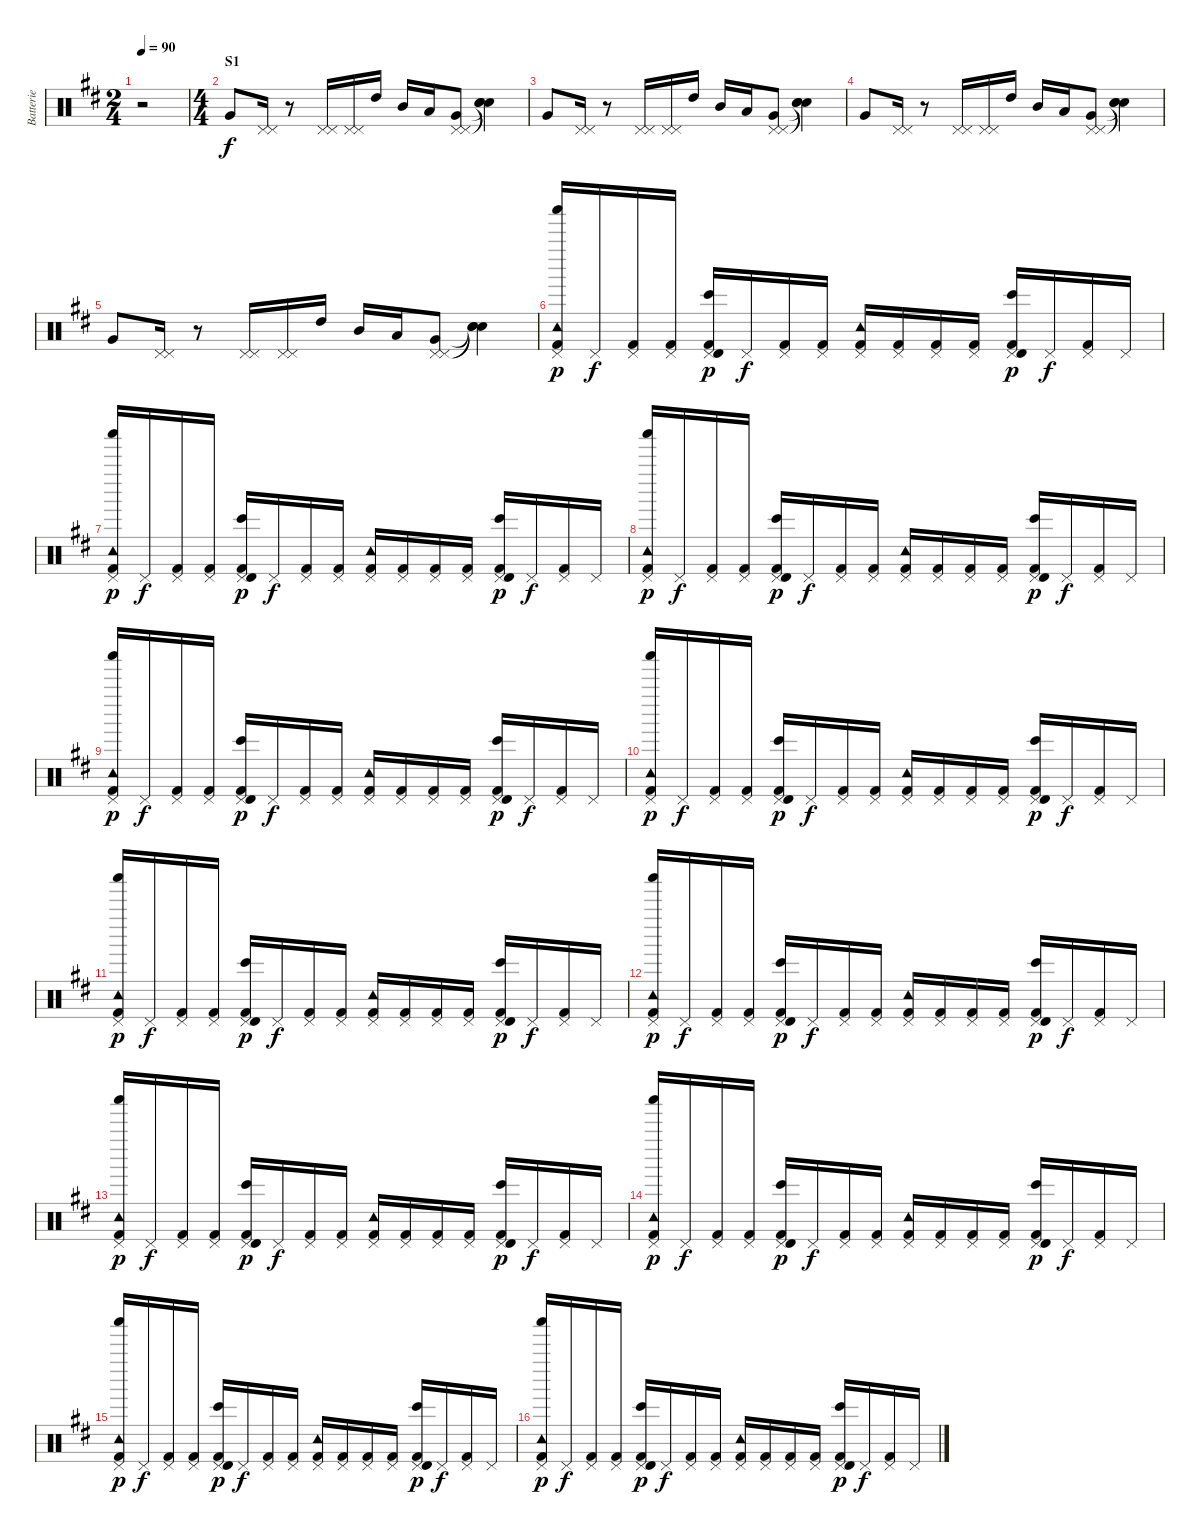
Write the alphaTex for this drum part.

\track ("Batterie" "Batterie") {instrument percussion}
\staff {score}
\articulation defaults
\ts (2 4)
\tempo 90
\clef neutral
\ks d
r.2{dy f} |
\ts (4 4)
\section ("" "S1")
"Very Low Tom (hit)".8 ("Pedal Hi-Hat (hit)" "Pedal Hi-Hat (hit)").16 r.8 ("Pedal Hi-Hat (hit)" "Pedal Hi-Hat (hit)").16 ("Pedal Hi-Hat (hit)" "Pedal Hi-Hat (hit)").16 "High Tom (hit)".16 "Mid Tom (hit)".16 "Low Tom (hit)".16 ("Very Low Tom (hit)" "Pedal Hi-Hat (hit)" "Pedal Hi-Hat (hit)").8 ("Snare (hit)"{t} "Snare (hit)"{t} "Snare (hit)"{t}).4 |
"Very Low Tom (hit)".8 ("Pedal Hi-Hat (hit)" "Pedal Hi-Hat (hit)").16 r.8 ("Pedal Hi-Hat (hit)" "Pedal Hi-Hat (hit)").16 ("Pedal Hi-Hat (hit)" "Pedal Hi-Hat (hit)").16 "High Tom (hit)".16 "Mid Tom (hit)".16 "Low Tom (hit)".16 ("Very Low Tom (hit)" "Pedal Hi-Hat (hit)" "Pedal Hi-Hat (hit)").8 ("Snare (hit)"{t} "Snare (hit)"{t} "Snare (hit)"{t}).4 |
"Very Low Tom (hit)".8 ("Pedal Hi-Hat (hit)" "Pedal Hi-Hat (hit)").16 r.8 ("Pedal Hi-Hat (hit)" "Pedal Hi-Hat (hit)").16 ("Pedal Hi-Hat (hit)" "Pedal Hi-Hat (hit)").16 "High Tom (hit)".16 "Mid Tom (hit)".16 "Low Tom (hit)".16 ("Very Low Tom (hit)" "Pedal Hi-Hat (hit)" "Pedal Hi-Hat (hit)").8 ("Snare (hit)"{t} "Snare (hit)"{t} "Snare (hit)"{t}).4 |
"Very Low Tom (hit)".8 ("Pedal Hi-Hat (hit)" "Pedal Hi-Hat (hit)").16 r.8 ("Pedal Hi-Hat (hit)" "Pedal Hi-Hat (hit)").16 ("Pedal Hi-Hat (hit)" "Pedal Hi-Hat (hit)").16 "High Tom (hit)".16 "Mid Tom (hit)".16 "Low Tom (hit)".16 ("Very Low Tom (hit)" "Pedal Hi-Hat (hit)" "Pedal Hi-Hat (hit)").8 ("Snare (hit)"{t} "Snare (hit)"{t} "Snare (hit)"{t}).4 |
("Shaker (hit)" "Tambourine (hit)" "Pedal Hi-Hat (hit)" "Kick (hit) 2").16{dy p} "Pedal Hi-Hat (hit)".16{dy f} ("Pedal Hi-Hat (hit)" "Kick (hit) 2").16 ("Pedal Hi-Hat (hit)" "Kick (hit) 2").16 ("Pedal Hi-Hat (hit)" "Bongo High (hit)" "Timbale high (hit)" "Kick (hit) 2").16{dy p} "Pedal Hi-Hat (hit)".16{dy f} ("Pedal Hi-Hat (hit)" "Kick (hit) 2").16 ("Pedal Hi-Hat (hit)" "Kick (hit) 2").16 ("Tambourine (hit)" "Pedal Hi-Hat (hit)" "Kick (hit) 2").16 ("Pedal Hi-Hat (hit)" "Kick (hit) 2").16 ("Pedal Hi-Hat (hit)" "Kick (hit) 2").16 ("Pedal Hi-Hat (hit)" "Kick (hit) 2").16 ("Pedal Hi-Hat (hit)" "Bongo High (hit)" "Timbale high (hit)" "Kick (hit) 2").16{dy p} "Pedal Hi-Hat (hit)".16{dy f} ("Pedal Hi-Hat (hit)" "Kick (hit) 2").16 "Pedal Hi-Hat (hit)".16 |
("Shaker (hit)" "Tambourine (hit)" "Pedal Hi-Hat (hit)" "Kick (hit) 2").16{dy p} "Pedal Hi-Hat (hit)".16{dy f} ("Pedal Hi-Hat (hit)" "Kick (hit) 2").16 ("Pedal Hi-Hat (hit)" "Kick (hit) 2").16 ("Pedal Hi-Hat (hit)" "Bongo High (hit)" "Timbale high (hit)" "Kick (hit) 2").16{dy p} "Pedal Hi-Hat (hit)".16{dy f} ("Pedal Hi-Hat (hit)" "Kick (hit) 2").16 ("Pedal Hi-Hat (hit)" "Kick (hit) 2").16 ("Tambourine (hit)" "Pedal Hi-Hat (hit)" "Kick (hit) 2").16 ("Pedal Hi-Hat (hit)" "Kick (hit) 2").16 ("Pedal Hi-Hat (hit)" "Kick (hit) 2").16 ("Pedal Hi-Hat (hit)" "Kick (hit) 2").16 ("Pedal Hi-Hat (hit)" "Bongo High (hit)" "Timbale high (hit)" "Kick (hit) 2").16{dy p} "Pedal Hi-Hat (hit)".16{dy f} ("Pedal Hi-Hat (hit)" "Kick (hit) 2").16 "Pedal Hi-Hat (hit)".16 |
("Shaker (hit)" "Tambourine (hit)" "Pedal Hi-Hat (hit)" "Kick (hit) 2").16{dy p} "Pedal Hi-Hat (hit)".16{dy f} ("Pedal Hi-Hat (hit)" "Kick (hit) 2").16 ("Pedal Hi-Hat (hit)" "Kick (hit) 2").16 ("Pedal Hi-Hat (hit)" "Bongo High (hit)" "Timbale high (hit)" "Kick (hit) 2").16{dy p} "Pedal Hi-Hat (hit)".16{dy f} ("Pedal Hi-Hat (hit)" "Kick (hit) 2").16 ("Pedal Hi-Hat (hit)" "Kick (hit) 2").16 ("Tambourine (hit)" "Pedal Hi-Hat (hit)" "Kick (hit) 2").16 ("Pedal Hi-Hat (hit)" "Kick (hit) 2").16 ("Pedal Hi-Hat (hit)" "Kick (hit) 2").16 ("Pedal Hi-Hat (hit)" "Kick (hit) 2").16 ("Pedal Hi-Hat (hit)" "Bongo High (hit)" "Timbale high (hit)" "Kick (hit) 2").16{dy p} "Pedal Hi-Hat (hit)".16{dy f} ("Pedal Hi-Hat (hit)" "Kick (hit) 2").16 "Pedal Hi-Hat (hit)".16 |
("Shaker (hit)" "Tambourine (hit)" "Pedal Hi-Hat (hit)" "Kick (hit) 2").16{dy p} "Pedal Hi-Hat (hit)".16{dy f} ("Pedal Hi-Hat (hit)" "Kick (hit) 2").16 ("Pedal Hi-Hat (hit)" "Kick (hit) 2").16 ("Pedal Hi-Hat (hit)" "Bongo High (hit)" "Timbale high (hit)" "Kick (hit) 2").16{dy p} "Pedal Hi-Hat (hit)".16{dy f} ("Pedal Hi-Hat (hit)" "Kick (hit) 2").16 ("Pedal Hi-Hat (hit)" "Kick (hit) 2").16 ("Tambourine (hit)" "Pedal Hi-Hat (hit)" "Kick (hit) 2").16 ("Pedal Hi-Hat (hit)" "Kick (hit) 2").16 ("Pedal Hi-Hat (hit)" "Kick (hit) 2").16 ("Pedal Hi-Hat (hit)" "Kick (hit) 2").16 ("Pedal Hi-Hat (hit)" "Bongo High (hit)" "Timbale high (hit)" "Kick (hit) 2").16{dy p} "Pedal Hi-Hat (hit)".16{dy f} ("Pedal Hi-Hat (hit)" "Kick (hit) 2").16 "Pedal Hi-Hat (hit)".16 |
("Shaker (hit)" "Tambourine (hit)" "Pedal Hi-Hat (hit)" "Kick (hit) 2").16{dy p} "Pedal Hi-Hat (hit)".16{dy f} ("Pedal Hi-Hat (hit)" "Kick (hit) 2").16 ("Pedal Hi-Hat (hit)" "Kick (hit) 2").16 ("Pedal Hi-Hat (hit)" "Bongo High (hit)" "Timbale high (hit)" "Kick (hit) 2").16{dy p} "Pedal Hi-Hat (hit)".16{dy f} ("Pedal Hi-Hat (hit)" "Kick (hit) 2").16 ("Pedal Hi-Hat (hit)" "Kick (hit) 2").16 ("Tambourine (hit)" "Pedal Hi-Hat (hit)" "Kick (hit) 2").16 ("Pedal Hi-Hat (hit)" "Kick (hit) 2").16 ("Pedal Hi-Hat (hit)" "Kick (hit) 2").16 ("Pedal Hi-Hat (hit)" "Kick (hit) 2").16 ("Pedal Hi-Hat (hit)" "Bongo High (hit)" "Timbale high (hit)" "Kick (hit) 2").16{dy p} "Pedal Hi-Hat (hit)".16{dy f} ("Pedal Hi-Hat (hit)" "Kick (hit) 2").16 "Pedal Hi-Hat (hit)".16 |
("Shaker (hit)" "Tambourine (hit)" "Pedal Hi-Hat (hit)" "Kick (hit) 2").16{dy p} "Pedal Hi-Hat (hit)".16{dy f} ("Pedal Hi-Hat (hit)" "Kick (hit) 2").16 ("Pedal Hi-Hat (hit)" "Kick (hit) 2").16 ("Pedal Hi-Hat (hit)" "Bongo High (hit)" "Timbale high (hit)" "Kick (hit) 2").16{dy p} "Pedal Hi-Hat (hit)".16{dy f} ("Pedal Hi-Hat (hit)" "Kick (hit) 2").16 ("Pedal Hi-Hat (hit)" "Kick (hit) 2").16 ("Tambourine (hit)" "Pedal Hi-Hat (hit)" "Kick (hit) 2").16 ("Pedal Hi-Hat (hit)" "Kick (hit) 2").16 ("Pedal Hi-Hat (hit)" "Kick (hit) 2").16 ("Pedal Hi-Hat (hit)" "Kick (hit) 2").16 ("Pedal Hi-Hat (hit)" "Bongo High (hit)" "Timbale high (hit)" "Kick (hit) 2").16{dy p} "Pedal Hi-Hat (hit)".16{dy f} ("Pedal Hi-Hat (hit)" "Kick (hit) 2").16 "Pedal Hi-Hat (hit)".16 |
("Shaker (hit)" "Tambourine (hit)" "Pedal Hi-Hat (hit)" "Kick (hit) 2").16{dy p} "Pedal Hi-Hat (hit)".16{dy f} ("Pedal Hi-Hat (hit)" "Kick (hit) 2").16 ("Pedal Hi-Hat (hit)" "Kick (hit) 2").16 ("Pedal Hi-Hat (hit)" "Bongo High (hit)" "Timbale high (hit)" "Kick (hit) 2").16{dy p} "Pedal Hi-Hat (hit)".16{dy f} ("Pedal Hi-Hat (hit)" "Kick (hit) 2").16 ("Pedal Hi-Hat (hit)" "Kick (hit) 2").16 ("Tambourine (hit)" "Pedal Hi-Hat (hit)" "Kick (hit) 2").16 ("Pedal Hi-Hat (hit)" "Kick (hit) 2").16 ("Pedal Hi-Hat (hit)" "Kick (hit) 2").16 ("Pedal Hi-Hat (hit)" "Kick (hit) 2").16 ("Pedal Hi-Hat (hit)" "Bongo High (hit)" "Timbale high (hit)" "Kick (hit) 2").16{dy p} "Pedal Hi-Hat (hit)".16{dy f} ("Pedal Hi-Hat (hit)" "Kick (hit) 2").16 "Pedal Hi-Hat (hit)".16 |
("Shaker (hit)" "Tambourine (hit)" "Pedal Hi-Hat (hit)" "Kick (hit) 2").16{dy p} "Pedal Hi-Hat (hit)".16{dy f} ("Pedal Hi-Hat (hit)" "Kick (hit) 2").16 ("Pedal Hi-Hat (hit)" "Kick (hit) 2").16 ("Pedal Hi-Hat (hit)" "Bongo High (hit)" "Timbale high (hit)" "Kick (hit) 2").16{dy p} "Pedal Hi-Hat (hit)".16{dy f} ("Pedal Hi-Hat (hit)" "Kick (hit) 2").16 ("Pedal Hi-Hat (hit)" "Kick (hit) 2").16 ("Tambourine (hit)" "Pedal Hi-Hat (hit)" "Kick (hit) 2").16 ("Pedal Hi-Hat (hit)" "Kick (hit) 2").16 ("Pedal Hi-Hat (hit)" "Kick (hit) 2").16 ("Pedal Hi-Hat (hit)" "Kick (hit) 2").16 ("Pedal Hi-Hat (hit)" "Bongo High (hit)" "Timbale high (hit)" "Kick (hit) 2").16{dy p} "Pedal Hi-Hat (hit)".16{dy f} ("Pedal Hi-Hat (hit)" "Kick (hit) 2").16 "Pedal Hi-Hat (hit)".16 |
("Shaker (hit)" "Tambourine (hit)" "Pedal Hi-Hat (hit)" "Kick (hit) 2").16{dy p} "Pedal Hi-Hat (hit)".16{dy f} ("Pedal Hi-Hat (hit)" "Kick (hit) 2").16 ("Pedal Hi-Hat (hit)" "Kick (hit) 2").16 ("Pedal Hi-Hat (hit)" "Bongo High (hit)" "Timbale high (hit)" "Kick (hit) 2").16{dy p} "Pedal Hi-Hat (hit)".16{dy f} ("Pedal Hi-Hat (hit)" "Kick (hit) 2").16 ("Pedal Hi-Hat (hit)" "Kick (hit) 2").16 ("Tambourine (hit)" "Pedal Hi-Hat (hit)" "Kick (hit) 2").16 ("Pedal Hi-Hat (hit)" "Kick (hit) 2").16 ("Pedal Hi-Hat (hit)" "Kick (hit) 2").16 ("Pedal Hi-Hat (hit)" "Kick (hit) 2").16 ("Pedal Hi-Hat (hit)" "Bongo High (hit)" "Timbale high (hit)" "Kick (hit) 2").16{dy p} "Pedal Hi-Hat (hit)".16{dy f} ("Pedal Hi-Hat (hit)" "Kick (hit) 2").16 "Pedal Hi-Hat (hit)".16 |
("Shaker (hit)" "Tambourine (hit)" "Pedal Hi-Hat (hit)" "Kick (hit) 2").16{dy p} "Pedal Hi-Hat (hit)".16{dy f} ("Pedal Hi-Hat (hit)" "Kick (hit) 2").16 ("Pedal Hi-Hat (hit)" "Kick (hit) 2").16 ("Pedal Hi-Hat (hit)" "Bongo High (hit)" "Timbale high (hit)" "Kick (hit) 2").16{dy p} "Pedal Hi-Hat (hit)".16{dy f} ("Pedal Hi-Hat (hit)" "Kick (hit) 2").16 ("Pedal Hi-Hat (hit)" "Kick (hit) 2").16 ("Tambourine (hit)" "Pedal Hi-Hat (hit)" "Kick (hit) 2").16 ("Pedal Hi-Hat (hit)" "Kick (hit) 2").16 ("Pedal Hi-Hat (hit)" "Kick (hit) 2").16 ("Pedal Hi-Hat (hit)" "Kick (hit) 2").16 ("Pedal Hi-Hat (hit)" "Bongo High (hit)" "Timbale high (hit)" "Kick (hit) 2").16{dy p} "Pedal Hi-Hat (hit)".16{dy f} ("Pedal Hi-Hat (hit)" "Kick (hit) 2").16 "Pedal Hi-Hat (hit)".16 |
("Shaker (hit)" "Tambourine (hit)" "Pedal Hi-Hat (hit)" "Kick (hit) 2").16{dy p} "Pedal Hi-Hat (hit)".16{dy f} ("Pedal Hi-Hat (hit)" "Kick (hit) 2").16 ("Pedal Hi-Hat (hit)" "Kick (hit) 2").16 ("Pedal Hi-Hat (hit)" "Bongo High (hit)" "Timbale high (hit)" "Kick (hit) 2").16{dy p} "Pedal Hi-Hat (hit)".16{dy f} ("Pedal Hi-Hat (hit)" "Kick (hit) 2").16 ("Pedal Hi-Hat (hit)" "Kick (hit) 2").16 ("Tambourine (hit)" "Pedal Hi-Hat (hit)" "Kick (hit) 2").16 ("Pedal Hi-Hat (hit)" "Kick (hit) 2").16 ("Pedal Hi-Hat (hit)" "Kick (hit) 2").16 ("Pedal Hi-Hat (hit)" "Kick (hit) 2").16 ("Pedal Hi-Hat (hit)" "Bongo High (hit)" "Timbale high (hit)" "Kick (hit) 2").16{dy p} "Pedal Hi-Hat (hit)".16{dy f} ("Pedal Hi-Hat (hit)" "Kick (hit) 2").16 "Pedal Hi-Hat (hit)".16
